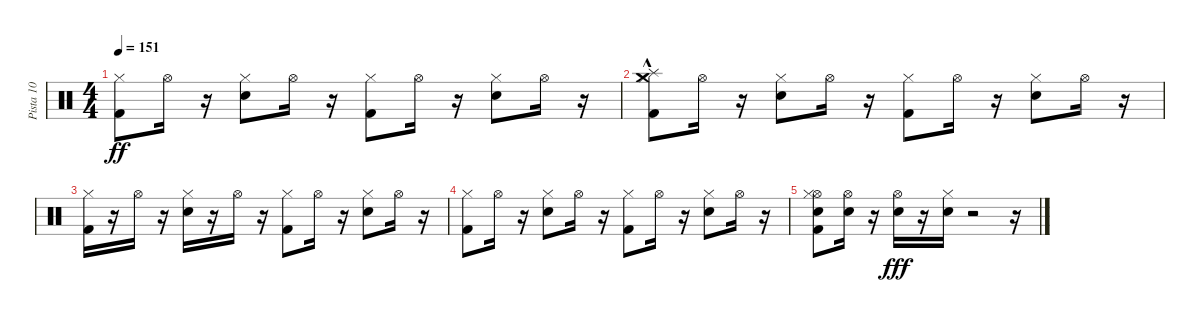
\track ("Pista 10" "Pista 10") {instrument percussion}
\staff {score}
\articulation defaults
\ts (4 4)
\tempo 151
\clef neutral
\ks c
("Hi-Hat (closed)" "Kick (hit) 2").8{dy ff} "Hi-Hat (open)".16 r.16 ("Hi-Hat (closed)" "Snare (hit) 2").8 "Hi-Hat (open)".16 r.16 ("Kick (hit) 2" "Hi-Hat (closed)").8 "Hi-Hat (open)".16 r.16 ("Snare (hit) 2" "Hi-Hat (closed)").8 "Hi-Hat (open)".16 r.16 |
("Kick (hit) 2" "Hi-Hat (closed)" "Splash (hit)"{hac} "Crash medium (hit)"{hac}).8 "Hi-Hat (open)".16 r.16 ("Hi-Hat (closed)" "Snare (hit) 2").8 "Hi-Hat (open)".16 r.16 ("Hi-Hat (closed)" "Kick (hit) 2").8 "Hi-Hat (open)".16 r.16 ("Hi-Hat (closed)" "Snare (hit) 2").8 "Hi-Hat (open)".16 r.16 |
("Hi-Hat (closed)" "Kick (hit) 2").16 r.16 "Hi-Hat (open)".16 r.16 ("Hi-Hat (closed)" "Snare (hit) 2").16 r.16 "Hi-Hat (open)".16 r.16 ("Hi-Hat (closed)" "Kick (hit) 2").8 "Hi-Hat (open)".16 r.16 ("Hi-Hat (closed)" "Snare (hit) 2").8 "Hi-Hat (open)".16 r.16 |
("Kick (hit) 2" "Hi-Hat (closed)").8 "Hi-Hat (open)".16 r.16 ("Snare (hit) 2" "Hi-Hat (closed)").8 "Hi-Hat (open)".16 r.16 ("Kick (hit) 2" "Hi-Hat (closed)").8 "Hi-Hat (open)".16 r.16 ("Hi-Hat (closed)" "Snare (hit) 2").8 "Hi-Hat (open)".16 r.16 |
("Snare (hit) 2" "Hi-Hat (open)" "Hi-Hat (closed)" "Kick (hit) 2").8 ("Hi-Hat (open)" "Snare (hit) 2").16 r.16 ("Hi-Hat (open)" "Snare (hit) 2").16{dy fff} r.16 ("Snare (hit) 2" "Hi-Hat (closed)").16 r.2 r.16
